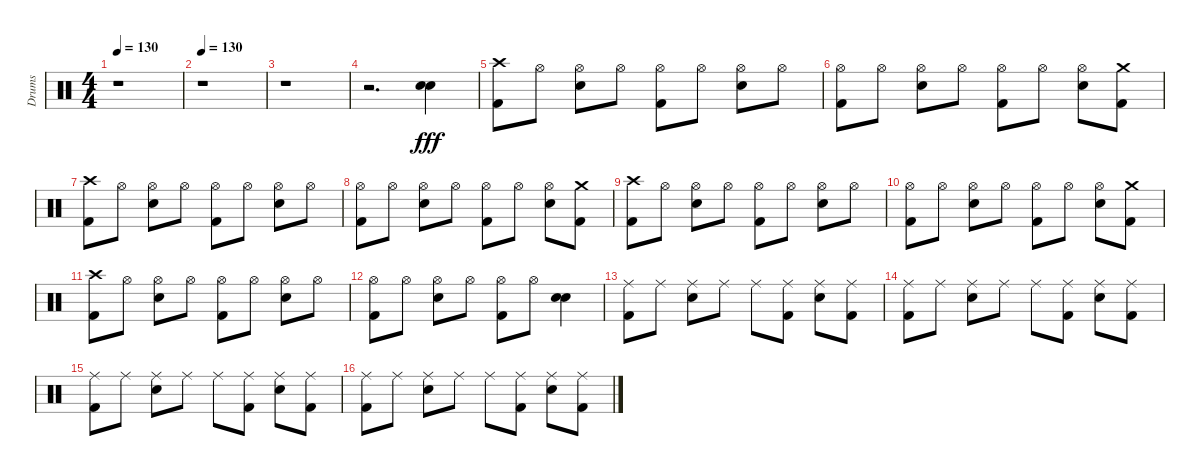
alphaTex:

\track ("Drums" "Drums") {instrument percussion}
\staff {score}
\articulation defaults
\ts (4 4)
\tempo 130
\clef neutral
\ks c
r.1{dy fff} |
\tempo 130
r.1 |
r.1 |
r.2{d} ("Electric Snare (hit)" "Electric Snare (hit)").4 |
("Kick (hit) 2" "Crash high (hit)").8 "Hi-Hat (open)".8 ("Electric Snare (hit)" "Hi-Hat (open)").8 "Hi-Hat (open)".8 ("Kick (hit) 2" "Hi-Hat (open)").8 "Hi-Hat (open)".8 ("Electric Snare (hit)" "Hi-Hat (open)").8 "Hi-Hat (open)".8 |
("Hi-Hat (open)" "Kick (hit) 2").8 "Hi-Hat (open)".8 ("Hi-Hat (open)" "Electric Snare (hit)").8 "Hi-Hat (open)".8 ("Hi-Hat (open)" "Kick (hit) 2").8 "Hi-Hat (open)".8 ("Hi-Hat (open)" "Electric Snare (hit)").8 ("Crash medium (hit)" "Kick (hit) 2").8 |
("Crash high (hit)" "Kick (hit) 2").8 "Hi-Hat (open)".8 ("Hi-Hat (open)" "Electric Snare (hit)").8 "Hi-Hat (open)".8 ("Hi-Hat (open)" "Kick (hit) 2").8 "Hi-Hat (open)".8 ("Hi-Hat (open)" "Electric Snare (hit)").8 "Hi-Hat (open)".8 |
("Hi-Hat (open)" "Kick (hit) 2").8 "Hi-Hat (open)".8 ("Hi-Hat (open)" "Electric Snare (hit)").8 "Hi-Hat (open)".8 ("Hi-Hat (open)" "Kick (hit) 2").8 "Hi-Hat (open)".8 ("Hi-Hat (open)" "Electric Snare (hit)").8 ("Crash medium (hit)" "Kick (hit) 2").8 |
("Kick (hit) 2" "Crash high (hit)").8 "Hi-Hat (open)".8 ("Electric Snare (hit)" "Hi-Hat (open)").8 "Hi-Hat (open)".8 ("Kick (hit) 2" "Hi-Hat (open)").8 "Hi-Hat (open)".8 ("Electric Snare (hit)" "Hi-Hat (open)").8 "Hi-Hat (open)".8 |
("Hi-Hat (open)" "Kick (hit) 2").8 "Hi-Hat (open)".8 ("Hi-Hat (open)" "Electric Snare (hit)").8 "Hi-Hat (open)".8 ("Hi-Hat (open)" "Kick (hit) 2").8 "Hi-Hat (open)".8 ("Hi-Hat (open)" "Electric Snare (hit)").8 ("Crash medium (hit)" "Kick (hit) 2").8 |
("Crash high (hit)" "Kick (hit) 2").8 "Hi-Hat (open)".8 ("Hi-Hat (open)" "Electric Snare (hit)").8 "Hi-Hat (open)".8 ("Hi-Hat (open)" "Kick (hit) 2").8 "Hi-Hat (open)".8 ("Hi-Hat (open)" "Electric Snare (hit)").8 "Hi-Hat (open)".8 |
("Hi-Hat (open)" "Kick (hit) 2").8 "Hi-Hat (open)".8 ("Hi-Hat (open)" "Electric Snare (hit)").8 "Hi-Hat (open)".8 ("Hi-Hat (open)" "Kick (hit) 2").8 "Hi-Hat (open)".8 ("Electric Snare (hit)" "Electric Snare (hit)").4 |
("Ride (middle)" "Kick (hit) 2").8 "Ride (middle)".8 ("Ride (middle)" "Electric Snare (hit)").8 "Ride (middle)".8 "Ride (middle)".8 ("Ride (middle)" "Kick (hit) 2").8 ("Ride (middle)" "Electric Snare (hit)").8 ("Ride (middle)" "Kick (hit) 2").8 |
("Ride (middle)" "Kick (hit) 2").8 "Ride (middle)".8 ("Ride (middle)" "Electric Snare (hit)").8 "Ride (middle)".8 "Ride (middle)".8 ("Ride (middle)" "Kick (hit) 2").8 ("Ride (middle)" "Electric Snare (hit)").8 ("Ride (middle)" "Kick (hit) 2").8 |
("Ride (middle)" "Kick (hit) 2").8 "Ride (middle)".8 ("Ride (middle)" "Electric Snare (hit)").8 "Ride (middle)".8 "Ride (middle)".8 ("Ride (middle)" "Kick (hit) 2").8 ("Ride (middle)" "Electric Snare (hit)").8 ("Ride (middle)" "Kick (hit) 2").8 |
("Kick (hit) 2" "Ride (middle)").8 "Ride (middle)".8 ("Electric Snare (hit)" "Ride (middle)").8 "Ride (middle)".8 "Ride (middle)".8 ("Ride (middle)" "Kick (hit) 2").8 ("Electric Snare (hit)" "Ride (middle)").8 ("Ride (middle)" "Kick (hit) 2").8
